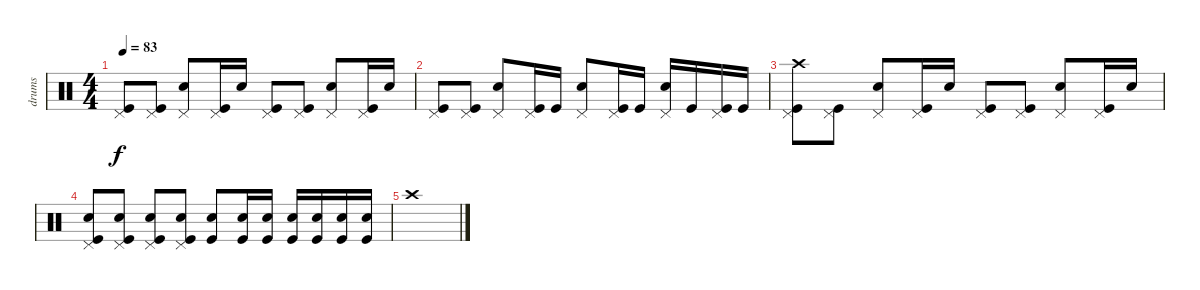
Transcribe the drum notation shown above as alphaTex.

\track ("drums" "drums") {instrument percussion}
\staff {score}
\articulation defaults
\ts (4 4)
\tempo 83
\clef neutral
\ks c
("Pedal Hi-Hat (hit)" "Kick (hit)").8{dy f} ("Pedal Hi-Hat (hit)" "Kick (hit)").8 ("Pedal Hi-Hat (hit)" "Snare (hit) 2").8 ("Pedal Hi-Hat (hit)" "Kick (hit)").16 "Snare (hit) 2".16 ("Pedal Hi-Hat (hit)" "Kick (hit)").8 ("Pedal Hi-Hat (hit)" "Kick (hit)").8 ("Pedal Hi-Hat (hit)" "Snare (hit) 2").8 ("Pedal Hi-Hat (hit)" "Kick (hit)").16 "Snare (hit) 2".16 |
("Pedal Hi-Hat (hit)" "Kick (hit)").8 ("Pedal Hi-Hat (hit)" "Kick (hit)").8 ("Pedal Hi-Hat (hit)" "Snare (hit) 2").8 ("Pedal Hi-Hat (hit)" "Kick (hit)").16 "Kick (hit)".16 ("Pedal Hi-Hat (hit)" "Snare (hit) 2").8 ("Pedal Hi-Hat (hit)" "Kick (hit)").16 "Kick (hit)".16 ("Pedal Hi-Hat (hit)" "Snare (hit) 2").16 "Kick (hit)".16 ("Pedal Hi-Hat (hit)" "Kick (hit)").16 "Kick (hit)".16 |
("Crash high (hit)" "Pedal Hi-Hat (hit)" "Kick (hit)").8 ("Pedal Hi-Hat (hit)" "Kick (hit)").8 ("Pedal Hi-Hat (hit)" "Snare (hit) 2").8 ("Pedal Hi-Hat (hit)" "Kick (hit)").16 "Snare (hit) 2".16 ("Pedal Hi-Hat (hit)" "Kick (hit)").8 ("Pedal Hi-Hat (hit)" "Kick (hit)").8 ("Pedal Hi-Hat (hit)" "Snare (hit) 2").8 ("Kick (hit)" "Pedal Hi-Hat (hit)").16 "Snare (hit) 2".16 |
("Kick (hit)" "Snare (hit) 2" "Pedal Hi-Hat (hit)").8 ("Kick (hit)" "Snare (hit) 2" "Pedal Hi-Hat (hit)").8 ("Kick (hit)" "Pedal Hi-Hat (hit)" "Snare (hit) 2").8 ("Kick (hit)" "Snare (hit) 2" "Pedal Hi-Hat (hit)").8 ("Kick (hit)" "Snare (hit) 2").8 ("Kick (hit)" "Snare (hit) 2").16 ("Kick (hit)" "Snare (hit) 2").16 ("Kick (hit)" "Snare (hit) 2").16 ("Kick (hit)" "Snare (hit) 2").16 ("Kick (hit)" "Snare (hit) 2").16 ("Kick (hit)" "Snare (hit) 2").16 |
"Crash high (hit)".1
